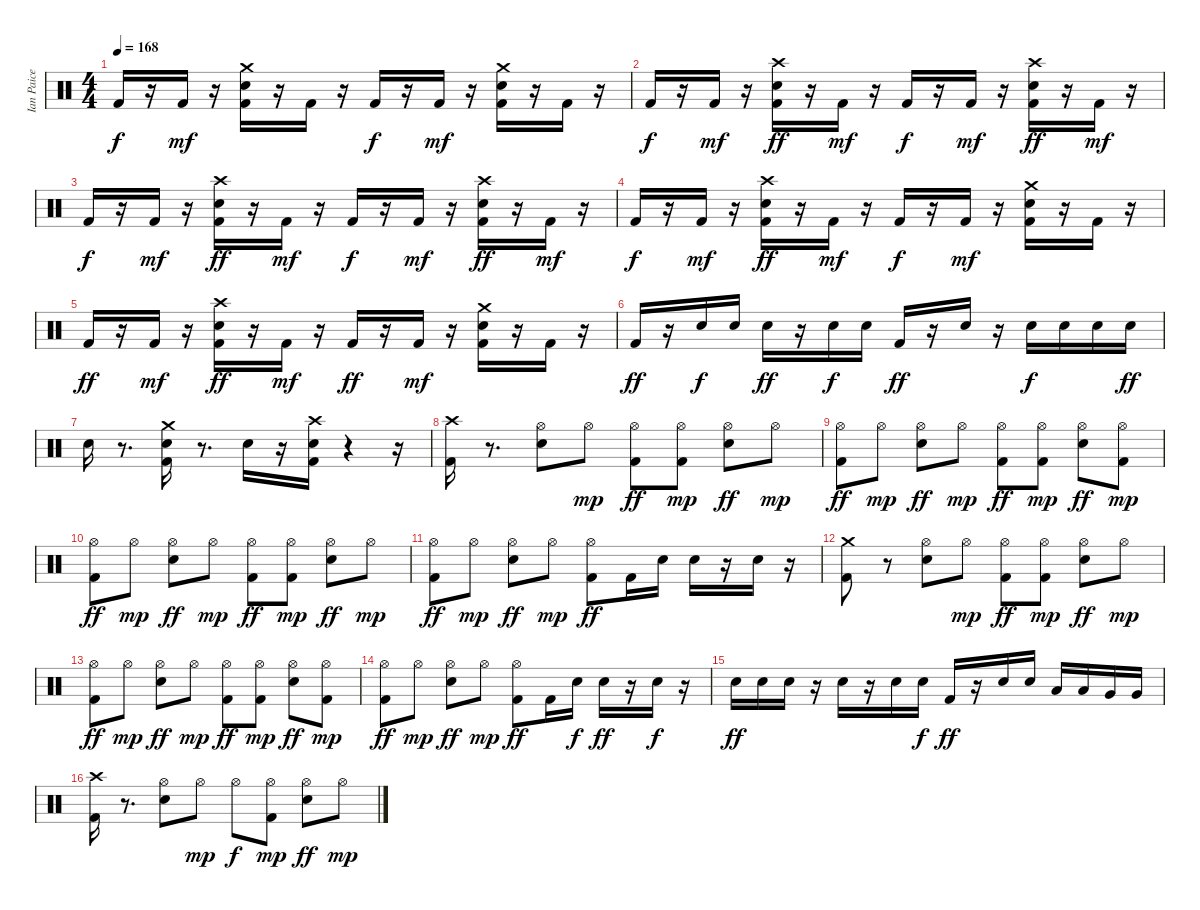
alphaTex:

\track ("Ian Paice" "Ian Paice") {instrument percussion}
\staff {score}
\articulation defaults
\ts (4 4)
\tempo 168
\clef neutral
\ks c "Kick (hit) 2".16{dy f}
r.16 "Kick (hit) 2".16{dy mf} r.16 ("Electric Snare (hit)" "Kick (hit) 2" "Crash medium (hit)").16 r.16 "Kick (hit) 2".16 r.16 "Kick (hit) 2".16{dy f} r.16 "Kick (hit) 2".16{dy mf} r.16 ("Electric Snare (hit)" "Kick (hit) 2" "Crash medium (hit)").16 r.16 "Kick (hit) 2".16 r.16 |
"Kick (hit) 2".16{dy f} r.16 "Kick (hit) 2".16{dy mf} r.16 ("Kick (hit) 2" "Crash high (hit)" "Electric Snare (hit)").16{dy ff} r.16 "Kick (hit) 2".16{dy mf} r.16 "Kick (hit) 2".16{dy f} r.16 "Kick (hit) 2".16{dy mf} r.16 ("Kick (hit) 2" "Crash high (hit)" "Electric Snare (hit)").16{dy ff} r.16 "Kick (hit) 2".16{dy mf} r.16 |
"Kick (hit) 2".16{dy f} r.16 "Kick (hit) 2".16{dy mf} r.16 ("Kick (hit) 2" "Crash high (hit)" "Electric Snare (hit)").16{dy ff} r.16 "Kick (hit) 2".16{dy mf} r.16 "Kick (hit) 2".16{dy f} r.16 "Kick (hit) 2".16{dy mf} r.16 ("Kick (hit) 2" "Crash high (hit)" "Electric Snare (hit)").16{dy ff} r.16 "Kick (hit) 2".16{dy mf} r.16 |
"Kick (hit) 2".16{dy f} r.16 "Kick (hit) 2".16{dy mf} r.16 ("Kick (hit) 2" "Crash high (hit)" "Electric Snare (hit)").16{dy ff} r.16 "Kick (hit) 2".16{dy mf} r.16 "Kick (hit) 2".16{dy f} r.16 "Kick (hit) 2".16{dy mf} r.16 ("Kick (hit) 2" "Electric Snare (hit)" "Crash medium (hit)").16 r.16 "Kick (hit) 2".16 r.16 |
"Kick (hit) 2".16{dy ff} r.16 "Kick (hit) 2".16{dy mf} r.16 ("Kick (hit) 2" "Crash high (hit)" "Electric Snare (hit)").16{dy ff} r.16 "Kick (hit) 2".16{dy mf} r.16 "Kick (hit) 2".16{dy ff} r.16 "Kick (hit) 2".16{dy mf} r.16 ("Kick (hit) 2" "Electric Snare (hit)" "Crash medium (hit)").16 r.16 "Kick (hit) 2".16 r.16 |
"Kick (hit) 2".16{dy ff} r.16 "Electric Snare (hit)".16{dy f} "Electric Snare (hit)".16 "Electric Snare (hit)".16{dy ff} r.16 "Electric Snare (hit)".16{dy f} "Electric Snare (hit)".16 "Kick (hit) 2".16{dy ff} r.16 "Electric Snare (hit)".16 r.16 "Electric Snare (hit)".16{dy f} "Electric Snare (hit)".16 "Electric Snare (hit)".16 "Electric Snare (hit)".16{dy ff} |
"Electric Snare (hit)".16 r.8{d} ("Crash medium (hit)" "Kick (hit) 2" "Electric Snare (hit)").16 r.8{d} "Electric Snare (hit)".16 r.16 ("Kick (hit) 2" "Electric Snare (hit)" "Crash high (hit)").16 r.4 r.16 |
("Kick (hit) 2" "Crash high (hit)").16 r.8{d} ("Hi-Hat (open)" "Electric Snare (hit)").8 "Hi-Hat (open)".8{dy mp} ("Kick (hit) 2" "Hi-Hat (open)").8{dy ff} ("Kick (hit) 2" "Hi-Hat (open)").8{dy mp} ("Hi-Hat (open)" "Electric Snare (hit)").8{dy ff} "Hi-Hat (open)".8{dy mp} |
("Kick (hit) 2" "Hi-Hat (open)").8{dy ff} "Hi-Hat (open)".8{dy mp} ("Hi-Hat (open)" "Electric Snare (hit)").8{dy ff} "Hi-Hat (open)".8{dy mp} ("Kick (hit) 2" "Hi-Hat (open)").8{dy ff} ("Kick (hit) 2" "Hi-Hat (open)").8{dy mp} ("Hi-Hat (open)" "Electric Snare (hit)").8{dy ff} ("Kick (hit) 2" "Hi-Hat (open)").8{dy mp} |
("Kick (hit) 2" "Hi-Hat (open)").8{dy ff} "Hi-Hat (open)".8{dy mp} ("Hi-Hat (open)" "Electric Snare (hit)").8{dy ff} "Hi-Hat (open)".8{dy mp} ("Kick (hit) 2" "Hi-Hat (open)").8{dy ff} ("Kick (hit) 2" "Hi-Hat (open)").8{dy mp} ("Hi-Hat (open)" "Electric Snare (hit)").8{dy ff} "Hi-Hat (open)".8{dy mp} |
("Kick (hit) 2" "Hi-Hat (open)").8{dy ff} "Hi-Hat (open)".8{dy mp} ("Hi-Hat (open)" "Electric Snare (hit)").8{dy ff} "Hi-Hat (open)".8{dy mp} ("Kick (hit) 2" "Hi-Hat (open)").8{dy ff} "Kick (hit) 2".16 "Electric Snare (hit)".16 "Electric Snare (hit)".16 r.16 "Electric Snare (hit)".16 r.16 |
("Kick (hit) 2" "Crash medium (hit)").8 r.8 ("Hi-Hat (open)" "Electric Snare (hit)").8 "Hi-Hat (open)".8{dy mp} ("Kick (hit) 2" "Hi-Hat (open)").8{dy ff} ("Kick (hit) 2" "Hi-Hat (open)").8{dy mp} ("Hi-Hat (open)" "Electric Snare (hit)").8{dy ff} "Hi-Hat (open)".8{dy mp} |
("Kick (hit) 2" "Hi-Hat (open)").8{dy ff} "Hi-Hat (open)".8{dy mp} ("Hi-Hat (open)" "Electric Snare (hit)").8{dy ff} "Hi-Hat (open)".8{dy mp} ("Kick (hit) 2" "Hi-Hat (open)").8{dy ff} ("Kick (hit) 2" "Hi-Hat (open)").8{dy mp} ("Hi-Hat (open)" "Electric Snare (hit)").8{dy ff} ("Kick (hit) 2" "Hi-Hat (open)").8{dy mp} |
("Kick (hit) 2" "Hi-Hat (open)").8{dy ff} "Hi-Hat (open)".8{dy mp} ("Hi-Hat (open)" "Electric Snare (hit)").8{dy ff} "Hi-Hat (open)".8{dy mp} ("Kick (hit) 2" "Hi-Hat (open)").8{dy ff} "Kick (hit) 2".16 "Electric Snare (hit)".16{dy f} "Electric Snare (hit)".16{dy ff} r.16 "Electric Snare (hit)".16{dy f} r.16 |
"Electric Snare (hit)".16{dy ff} "Electric Snare (hit)".16 "Electric Snare (hit)".16 r.16 "Electric Snare (hit)".16 r.16 "Electric Snare (hit)".16 "Electric Snare (hit)".16{dy f} "Kick (hit) 2".16{dy ff} r.16 "Electric Snare (hit)".16 "Electric Snare (hit)".16 "Low Tom (hit)".16 "Low Tom (hit)".16 "Very Low Tom (hit)".16 "Very Low Tom (hit)".16 |
("Crash high (hit)" "Kick (hit) 2").16 r.8{d} ("Hi-Hat (open)" "Electric Snare (hit)").8 "Hi-Hat (open)".8{dy mp} "Hi-Hat (open)".8{dy f} ("Kick (hit) 2" "Hi-Hat (open)").8{dy mp} ("Hi-Hat (open)" "Electric Snare (hit)").8{dy ff} "Hi-Hat (open)".8{dy mp}
